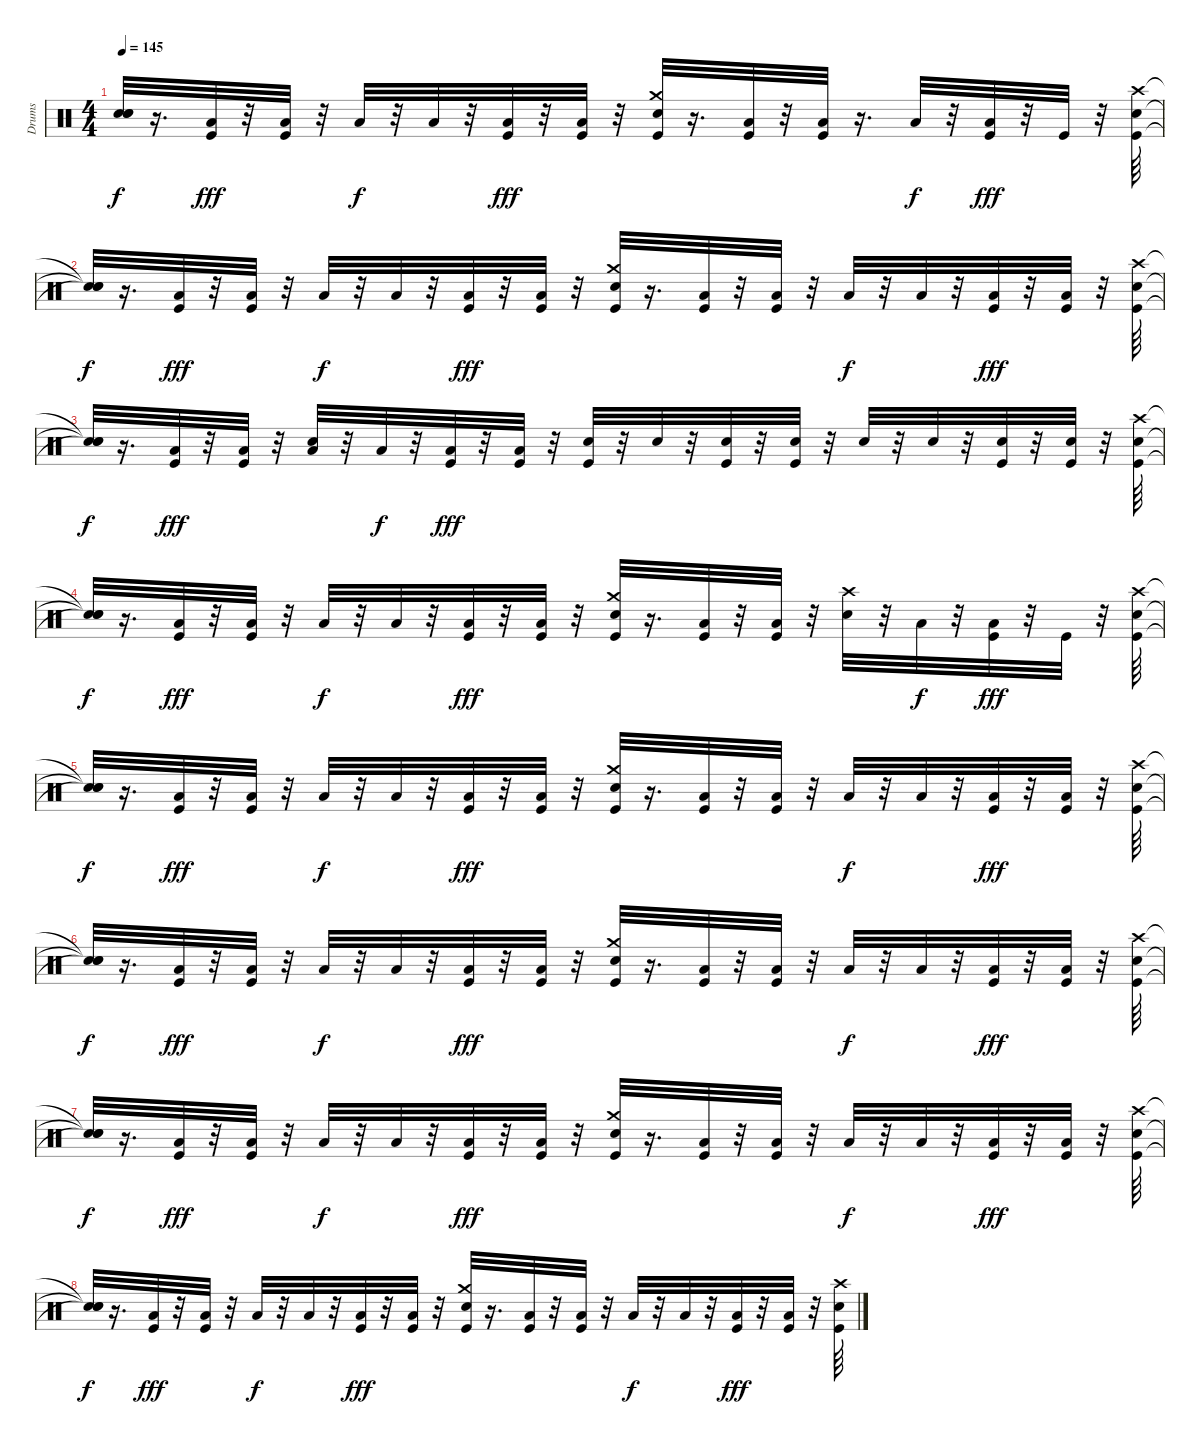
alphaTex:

\track ("Drums" "Drums") {instrument percussion}
\staff {score}
\articulation defaults
\ts (4 4)
\tempo 145
\clef neutral
\ks c
("Snare (hit)"{t} "Snare (hit)"{t} "Snare (hit)"{t}).32{dy f} r.16{d} ("Kick (hit)" "Low Floor Tom (hit)").32{dy fff} r.32 ("Kick (hit)" "Low Tom (hit)").32 r.32 "Low Tom (hit)".32{dy f} r.32 "Low Floor Tom (hit)".32 r.32 ("Kick (hit)" "Low Floor Tom (hit)").32{dy fff} r.32 ("Kick (hit)" "Low Floor Tom (hit)").32 r.32 ("Crash medium (hit)" "Kick (hit)" "Electric Snare (hit)").32 r.16{d} ("Kick (hit)" "Low Tom (hit)").32 r.32 ("Kick (hit)" "Low Floor Tom (hit)").32 r.16{d} "Low Floor Tom (hit)".32{dy f} r.32 ("Kick (hit)" "Low Floor Tom (hit)").32{dy fff} r.32 "Kick (hit)".32 r.32 ("Kick (hit)" "Electric Snare (hit)" "Crash high (hit)").64 |
("Snare (hit)"{t} "Snare (hit)"{t} "Snare (hit)"{t}).32{dy f} r.16{d} ("Kick (hit)" "Low Floor Tom (hit)").32{dy fff} r.32 ("Kick (hit)" "Low Tom (hit)").32 r.32 "Low Tom (hit)".32{dy f} r.32 "Low Floor Tom (hit)".32 r.32 ("Kick (hit)" "Low Floor Tom (hit)").32{dy fff} r.32 ("Kick (hit)" "Low Floor Tom (hit)").32 r.32 ("Crash medium (hit)" "Kick (hit)" "Electric Snare (hit)").32 r.16{d} ("Kick (hit)" "Low Tom (hit)").32 r.32 ("Kick (hit)" "Low Floor Tom (hit)").32 r.32 "Low Tom (hit)".32{dy f} r.32 "Low Floor Tom (hit)".32 r.32 ("Kick (hit)" "Low Floor Tom (hit)").32{dy fff} r.32 ("Kick (hit)" "Low Floor Tom (hit)").32 r.32 ("Kick (hit)" "Electric Snare (hit)" "Crash high (hit)").64 |
("Snare (hit)"{t} "Snare (hit)"{t} "Snare (hit)"{t}).32{dy f} r.16{d} ("Kick (hit)" "Low Floor Tom (hit)").32{dy fff} r.32 ("Kick (hit)" "Low Tom (hit)").32 r.32 ("Electric Snare (hit)" "Low Tom (hit)").32 r.32 "Low Floor Tom (hit)".32{dy f} r.32 ("Kick (hit)" "Low Floor Tom (hit)").32{dy fff} r.32 ("Kick (hit)" "Low Floor Tom (hit)").32 r.32 ("Kick (hit)" "Electric Snare (hit)").32 r.32 "Electric Snare (hit)".32 r.32 ("Electric Snare (hit)" "Kick (hit)").32 r.32 ("Electric Snare (hit)" "Kick (hit)").32 r.32 "Electric Snare (hit)".32 r.32 "Electric Snare (hit)".32 r.32 ("Electric Snare (hit)" "Kick (hit)").32 r.32 ("Electric Snare (hit)" "Kick (hit)").32 r.32 ("Kick (hit)" "Electric Snare (hit)" "Crash high (hit)").64 |
("Snare (hit)"{t} "Snare (hit)"{t} "Snare (hit)"{t}).32{dy f} r.16{d} ("Kick (hit)" "Low Floor Tom (hit)").32{dy fff} r.32 ("Kick (hit)" "Low Tom (hit)").32 r.32 "Low Tom (hit)".32{dy f} r.32 "Low Floor Tom (hit)".32 r.32 ("Kick (hit)" "Low Floor Tom (hit)").32{dy fff} r.32 ("Kick (hit)" "Low Floor Tom (hit)").32 r.32 ("Crash medium (hit)" "Kick (hit)" "Electric Snare (hit)").32 r.16{d} ("Kick (hit)" "Low Tom (hit)").32 r.32 ("Kick (hit)" "Low Floor Tom (hit)").32 r.32 ("Electric Snare (hit)" "Crash high (hit)").32 r.32 "Low Floor Tom (hit)".32{dy f} r.32 ("Kick (hit)" "Low Floor Tom (hit)").32{dy fff} r.32 "Kick (hit)".32 r.32 ("Kick (hit)" "Electric Snare (hit)" "Crash high (hit)").64 |
("Snare (hit)"{t} "Snare (hit)"{t} "Snare (hit)"{t}).32{dy f} r.16{d} ("Kick (hit)" "Low Floor Tom (hit)").32{dy fff} r.32 ("Kick (hit)" "Low Tom (hit)").32 r.32 "Low Tom (hit)".32{dy f} r.32 "Low Floor Tom (hit)".32 r.32 ("Kick (hit)" "Low Floor Tom (hit)").32{dy fff} r.32 ("Kick (hit)" "Low Floor Tom (hit)").32 r.32 ("Kick (hit)" "Electric Snare (hit)" "Crash medium (hit)").32 r.16{d} ("Kick (hit)" "Low Tom (hit)").32 r.32 ("Kick (hit)" "Low Floor Tom (hit)").32 r.32 "Low Tom (hit)".32{dy f} r.32 "Low Floor Tom (hit)".32 r.32 ("Kick (hit)" "Low Floor Tom (hit)").32{dy fff} r.32 ("Kick (hit)" "Low Floor Tom (hit)").32 r.32 ("Kick (hit)" "Electric Snare (hit)" "Crash high (hit)").64 |
("Snare (hit)"{t} "Snare (hit)"{t} "Snare (hit)"{t}).32{dy f} r.16{d} ("Kick (hit)" "Low Floor Tom (hit)").32{dy fff} r.32 ("Kick (hit)" "Low Tom (hit)").32 r.32 "Low Tom (hit)".32{dy f} r.32 "Low Floor Tom (hit)".32 r.32 ("Kick (hit)" "Low Floor Tom (hit)").32{dy fff} r.32 ("Kick (hit)" "Low Floor Tom (hit)").32 r.32 ("Kick (hit)" "Electric Snare (hit)" "Crash medium (hit)").32 r.16{d} ("Kick (hit)" "Low Tom (hit)").32 r.32 ("Kick (hit)" "Low Floor Tom (hit)").32 r.32 "Low Tom (hit)".32{dy f} r.32 "Low Floor Tom (hit)".32 r.32 ("Kick (hit)" "Low Floor Tom (hit)").32{dy fff} r.32 ("Kick (hit)" "Low Floor Tom (hit)").32 r.32 ("Kick (hit)" "Electric Snare (hit)" "Crash high (hit)").64 |
("Snare (hit)"{t} "Snare (hit)"{t} "Snare (hit)"{t}).32{dy f} r.16{d} ("Kick (hit)" "Low Floor Tom (hit)").32{dy fff} r.32 ("Kick (hit)" "Low Tom (hit)").32 r.32 "Low Tom (hit)".32{dy f} r.32 "Low Floor Tom (hit)".32 r.32 ("Kick (hit)" "Low Floor Tom (hit)").32{dy fff} r.32 ("Kick (hit)" "Low Floor Tom (hit)").32 r.32 ("Kick (hit)" "Electric Snare (hit)" "Crash medium (hit)").32 r.16{d} ("Kick (hit)" "Low Tom (hit)").32 r.32 ("Kick (hit)" "Low Floor Tom (hit)").32 r.32 "Low Tom (hit)".32{dy f} r.32 "Low Floor Tom (hit)".32 r.32 ("Kick (hit)" "Low Floor Tom (hit)").32{dy fff} r.32 ("Kick (hit)" "Low Floor Tom (hit)").32 r.32 ("Kick (hit)" "Electric Snare (hit)" "Crash high (hit)").64 |
("Snare (hit)"{t} "Snare (hit)"{t} "Snare (hit)"{t}).32{dy f} r.16{d} ("Kick (hit)" "Low Floor Tom (hit)").32{dy fff} r.32 ("Kick (hit)" "Low Tom (hit)").32 r.32 "Low Tom (hit)".32{dy f} r.32 "Low Floor Tom (hit)".32 r.32 ("Kick (hit)" "Low Floor Tom (hit)").32{dy fff} r.32 ("Kick (hit)" "Low Floor Tom (hit)").32 r.32 ("Kick (hit)" "Electric Snare (hit)" "Crash medium (hit)").32 r.16{d} ("Kick (hit)" "Low Tom (hit)").32 r.32 ("Kick (hit)" "Low Floor Tom (hit)").32 r.32 "Low Tom (hit)".32{dy f} r.32 "Low Floor Tom (hit)".32 r.32 ("Kick (hit)" "Low Floor Tom (hit)").32{dy fff} r.32 ("Kick (hit)" "Low Floor Tom (hit)").32 r.32 ("Kick (hit)" "Electric Snare (hit)" "Crash high (hit)").64
